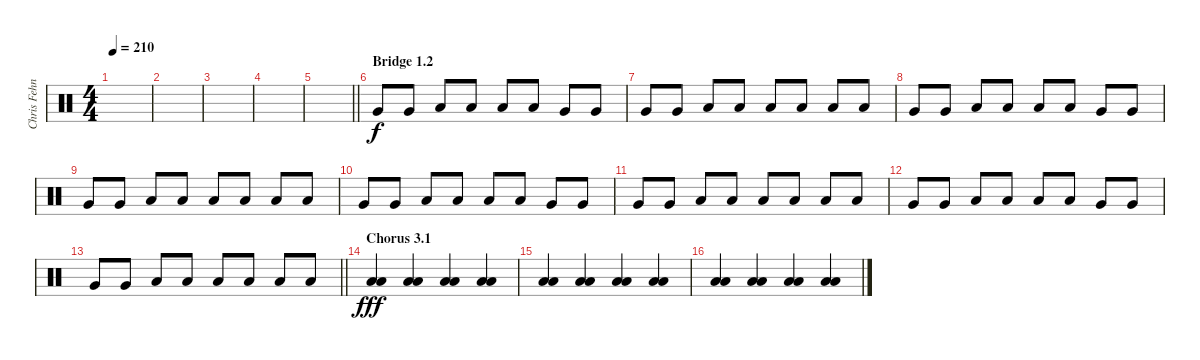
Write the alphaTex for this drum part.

\track ("Chris Fehn" "Chris Fehn") {instrument percussion}
\staff {score}
\articulation defaults
\ts (4 4)
\tempo 210
\clef neutral
\ks c
|
|
|
|
\barLineRight lightlight
|
\section ("" "Bridge 1.2")
"Very Low Tom (hit)".8{dy f} "Very Low Tom (hit)".8 "Low Floor Tom (hit)".8 "Low Floor Tom (hit)".8 "Low Tom (hit)".8 "Low Tom (hit)".8 "Very Low Tom (hit)".8 "Very Low Tom (hit)".8 |
"Very Low Tom (hit)".8 "Very Low Tom (hit)".8 "Low Floor Tom (hit)".8 "Low Floor Tom (hit)".8 "Low Floor Tom (hit)".8 "Low Floor Tom (hit)".8 "Low Floor Tom (hit)".8 "Low Floor Tom (hit)".8 |
"Very Low Tom (hit)".8 "Very Low Tom (hit)".8 "Low Floor Tom (hit)".8 "Low Floor Tom (hit)".8 "Low Tom (hit)".8 "Low Tom (hit)".8 "Very Low Tom (hit)".8 "Very Low Tom (hit)".8 |
"Very Low Tom (hit)".8 "Very Low Tom (hit)".8 "Low Floor Tom (hit)".8 "Low Floor Tom (hit)".8 "Low Floor Tom (hit)".8 "Low Floor Tom (hit)".8 "Low Floor Tom (hit)".8 "Low Floor Tom (hit)".8 |
"Very Low Tom (hit)".8 "Very Low Tom (hit)".8 "Low Floor Tom (hit)".8 "Low Floor Tom (hit)".8 "Low Tom (hit)".8 "Low Tom (hit)".8 "Very Low Tom (hit)".8 "Very Low Tom (hit)".8 |
"Very Low Tom (hit)".8 "Very Low Tom (hit)".8 "Low Floor Tom (hit)".8 "Low Floor Tom (hit)".8 "Low Floor Tom (hit)".8 "Low Floor Tom (hit)".8 "Low Floor Tom (hit)".8 "Low Floor Tom (hit)".8 |
"Very Low Tom (hit)".8 "Very Low Tom (hit)".8 "Low Floor Tom (hit)".8 "Low Floor Tom (hit)".8 "Low Tom (hit)".8 "Low Tom (hit)".8 "Very Low Tom (hit)".8 "Very Low Tom (hit)".8 |
\barLineRight lightlight "Very Low Tom (hit)".8 "Very Low Tom (hit)".8 "Low Floor Tom (hit)".8 "Low Floor Tom (hit)".8 "Low Floor Tom (hit)".8 "Low Floor Tom (hit)".8 "Low Floor Tom (hit)".8 "Low Floor Tom (hit)".8
|
\section ("" "Chorus 3.1")
("Low Floor Tom (hit)" "Low Floor Tom (hit)").4{dy fff} ("Low Floor Tom (hit)" "Low Floor Tom (hit)").4 ("Low Floor Tom (hit)" "Low Floor Tom (hit)").4 ("Low Floor Tom (hit)" "Low Floor Tom (hit)").4 |
("Low Floor Tom (hit)" "Low Floor Tom (hit)").4 ("Low Floor Tom (hit)" "Low Floor Tom (hit)").4 ("Low Floor Tom (hit)" "Low Floor Tom (hit)").4 ("Low Floor Tom (hit)" "Low Floor Tom (hit)").4 |
("Low Floor Tom (hit)" "Low Floor Tom (hit)").4 ("Low Floor Tom (hit)" "Low Floor Tom (hit)").4 ("Low Floor Tom (hit)" "Low Floor Tom (hit)").4 ("Low Floor Tom (hit)" "Low Floor Tom (hit)").4
